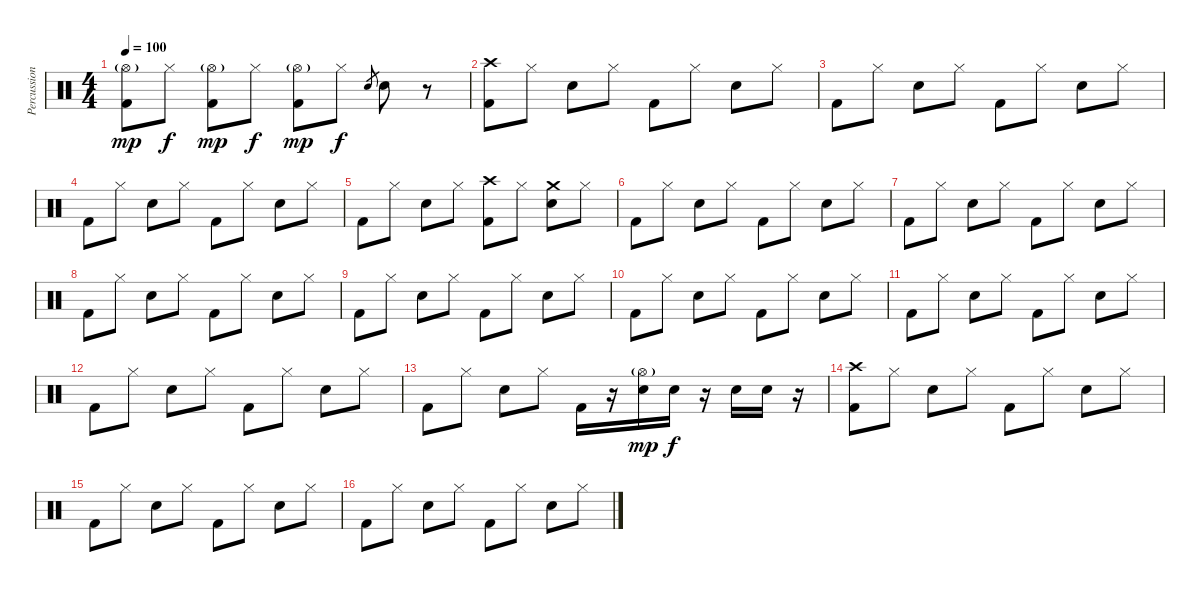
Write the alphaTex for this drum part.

\track ("Percussions" "Percussion") {instrument percussion}
\staff {score}
\articulation defaults
\ts (4 4)
\tempo 100
\clef neutral
\ks c
("Hi-Hat (open)"{g} "Kick (hit) 2").8{dy mp} "Hi-Hat (closed)".8{dy f} ("Hi-Hat (open)"{g} "Kick (hit) 2").8{dy mp} "Hi-Hat (closed)".8{dy f} ("Hi-Hat (open)"{g} "Kick (hit) 2").8{dy mp} "Hi-Hat (closed)".8{dy f} "Electric Snare (hit)".8{gr} "Electric Snare (hit)".8 r.8 |
("Crash high (hit)" "Kick (hit) 2").8 "Hi-Hat (closed)".8 "Electric Snare (hit)".8 "Hi-Hat (closed)".8 "Kick (hit) 2".8 "Hi-Hat (closed)".8 "Electric Snare (hit)".8 "Hi-Hat (closed)".8 |
"Kick (hit) 2".8 "Hi-Hat (closed)".8 "Electric Snare (hit)".8 "Hi-Hat (closed)".8 "Kick (hit) 2".8 "Hi-Hat (closed)".8 "Electric Snare (hit)".8 "Hi-Hat (closed)".8 |
"Kick (hit) 2".8 "Hi-Hat (closed)".8 "Electric Snare (hit)".8 "Hi-Hat (closed)".8 "Kick (hit) 2".8 "Hi-Hat (closed)".8 "Electric Snare (hit)".8 "Hi-Hat (closed)".8 |
"Kick (hit) 2".8 "Hi-Hat (closed)".8 "Electric Snare (hit)".8 "Hi-Hat (closed)".8 ("Crash high (hit)" "Kick (hit) 2").8 "Hi-Hat (closed)".8 ("Crash medium (hit)" "Electric Snare (hit)").8 "Hi-Hat (closed)".8 |
"Kick (hit) 2".8 "Hi-Hat (closed)".8 "Electric Snare (hit)".8 "Hi-Hat (closed)".8 "Kick (hit) 2".8 "Hi-Hat (closed)".8 "Electric Snare (hit)".8 "Hi-Hat (closed)".8 |
"Kick (hit) 2".8 "Hi-Hat (closed)".8 "Electric Snare (hit)".8 "Hi-Hat (closed)".8 "Kick (hit) 2".8 "Hi-Hat (closed)".8 "Electric Snare (hit)".8 "Hi-Hat (closed)".8 |
"Kick (hit) 2".8 "Hi-Hat (closed)".8 "Electric Snare (hit)".8 "Hi-Hat (closed)".8 "Kick (hit) 2".8 "Hi-Hat (closed)".8 "Electric Snare (hit)".8 "Hi-Hat (closed)".8 |
"Kick (hit) 2".8 "Hi-Hat (closed)".8 "Electric Snare (hit)".8 "Hi-Hat (closed)".8 "Kick (hit) 2".8 "Hi-Hat (closed)".8 "Electric Snare (hit)".8 "Hi-Hat (closed)".8 |
"Kick (hit) 2".8 "Hi-Hat (closed)".8 "Electric Snare (hit)".8 "Hi-Hat (closed)".8 "Kick (hit) 2".8 "Hi-Hat (closed)".8 "Electric Snare (hit)".8 "Hi-Hat (closed)".8 |
"Kick (hit) 2".8 "Hi-Hat (closed)".8 "Electric Snare (hit)".8 "Hi-Hat (closed)".8 "Kick (hit) 2".8 "Hi-Hat (closed)".8 "Electric Snare (hit)".8 "Hi-Hat (closed)".8 |
"Kick (hit) 2".8 "Hi-Hat (closed)".8 "Electric Snare (hit)".8 "Hi-Hat (closed)".8 "Kick (hit) 2".8 "Hi-Hat (closed)".8 "Electric Snare (hit)".8 "Hi-Hat (closed)".8 |
"Kick (hit) 2".8 "Hi-Hat (closed)".8 "Electric Snare (hit)".8 "Hi-Hat (closed)".8 "Kick (hit) 2".16 r.16 ("Hi-Hat (open)"{g} "Electric Snare (hit)").16{dy mp} "Electric Snare (hit)".16{dy f} r.16 "Electric Snare (hit)".16 "Electric Snare (hit)".16 r.16 |
("Crash high (hit)" "Kick (hit) 2").8 "Hi-Hat (closed)".8 "Electric Snare (hit)".8 "Hi-Hat (closed)".8 "Kick (hit) 2".8 "Hi-Hat (closed)".8 "Electric Snare (hit)".8 "Hi-Hat (closed)".8 |
"Kick (hit) 2".8 "Hi-Hat (closed)".8 "Electric Snare (hit)".8 "Hi-Hat (closed)".8 "Kick (hit) 2".8 "Hi-Hat (closed)".8 "Electric Snare (hit)".8 "Hi-Hat (closed)".8 |
"Kick (hit) 2".8 "Hi-Hat (closed)".8 "Electric Snare (hit)".8 "Hi-Hat (closed)".8 "Kick (hit) 2".8 "Hi-Hat (closed)".8 "Electric Snare (hit)".8 "Hi-Hat (closed)".8
